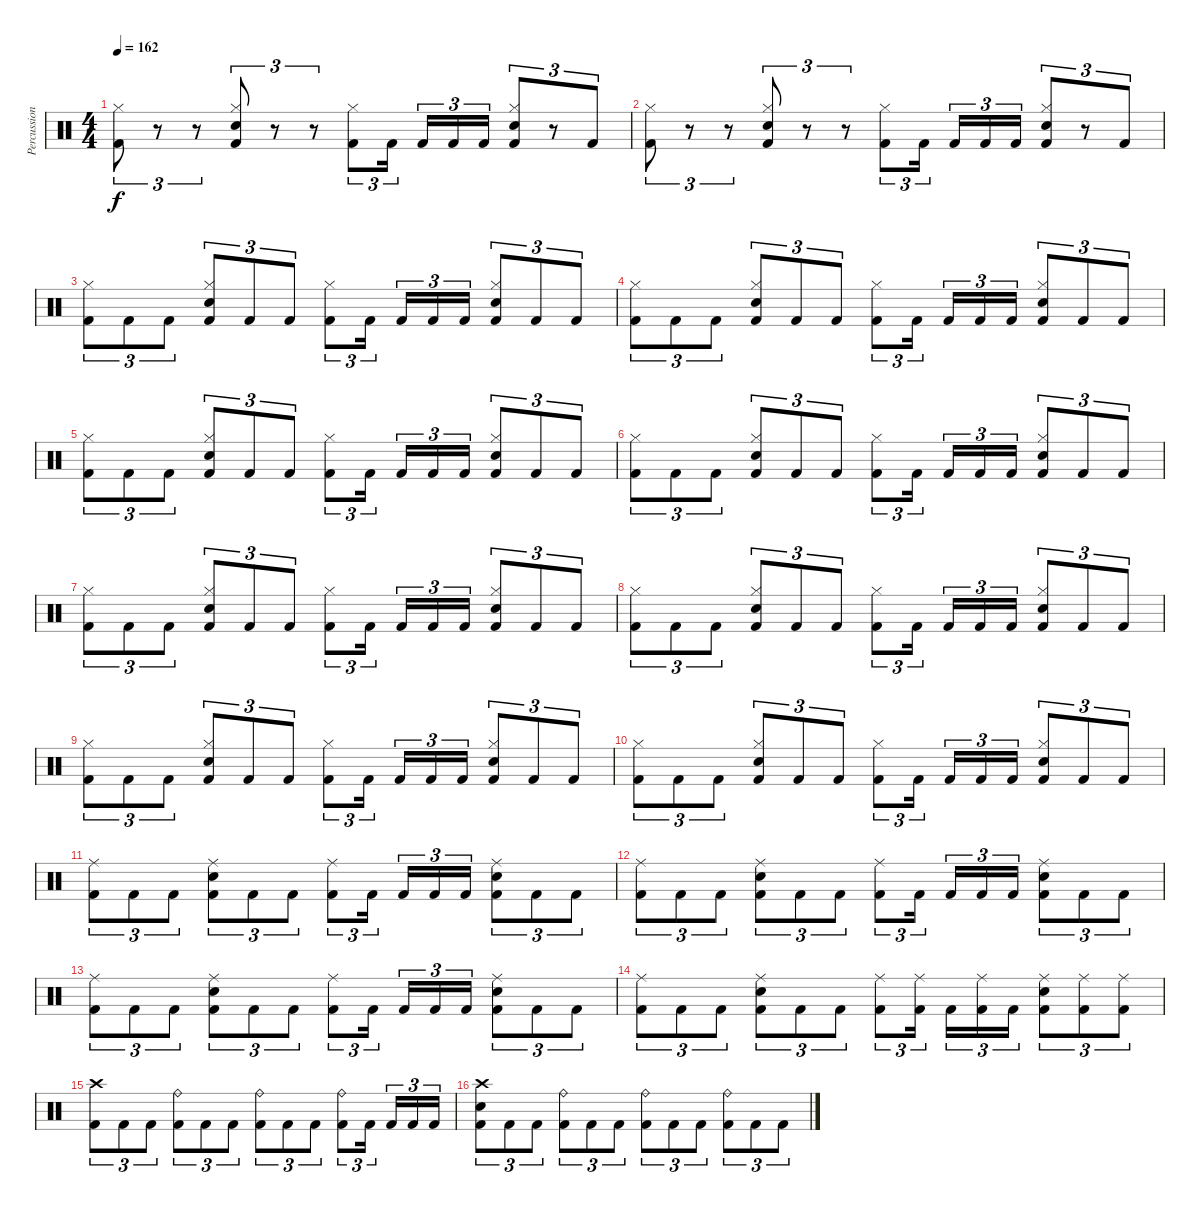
\track ("Percussion" "Percussion") {instrument percussion}
\staff {score}
\articulation defaults
\ts (4 4)
\tempo 162
\clef neutral
\ks c
("Kick (hit) 2" "Hi-Hat (closed)").8{tu (3 2) dy f} r.8{tu (3 2)} r.8{tu (3 2)} ("Kick (hit) 2" "Electric Snare (hit)" "Hi-Hat (closed)").8{tu (3 2)} r.8{tu (3 2)} r.8{tu (3 2)} ("Kick (hit) 2" "Hi-Hat (closed)").8{tu (3 2)} "Kick (hit) 2".16{tu (3 2)} "Kick (hit) 2".16{tu (3 2)} "Kick (hit) 2".16{tu (3 2)} "Kick (hit) 2".16{tu (3 2)} ("Kick (hit) 2" "Electric Snare (hit)" "Hi-Hat (closed)").8{tu (3 2)} r.8{tu (3 2)} "Kick (hit) 2".8{tu (3 2)} |
("Kick (hit) 2" "Hi-Hat (closed)").8{tu (3 2)} r.8{tu (3 2)} r.8{tu (3 2)} ("Kick (hit) 2" "Electric Snare (hit)" "Hi-Hat (closed)").8{tu (3 2)} r.8{tu (3 2)} r.8{tu (3 2)} ("Kick (hit) 2" "Hi-Hat (closed)").8{tu (3 2)} "Kick (hit) 2".16{tu (3 2)} "Kick (hit) 2".16{tu (3 2)} "Kick (hit) 2".16{tu (3 2)} "Kick (hit) 2".16{tu (3 2)} ("Kick (hit) 2" "Electric Snare (hit)" "Hi-Hat (closed)").8{tu (3 2)} r.8{tu (3 2)} "Kick (hit) 2".8{tu (3 2)} |
("Kick (hit) 2" "Hi-Hat (closed)").8{tu (3 2)} "Kick (hit) 2".8{tu (3 2)} "Kick (hit) 2".8{tu (3 2)} ("Kick (hit) 2" "Electric Snare (hit)" "Hi-Hat (closed)").8{tu (3 2)} "Kick (hit) 2".8{tu (3 2)} "Kick (hit) 2".8{tu (3 2)} ("Kick (hit) 2" "Hi-Hat (closed)").8{tu (3 2)} "Kick (hit) 2".16{tu (3 2)} "Kick (hit) 2".16{tu (3 2)} "Kick (hit) 2".16{tu (3 2)} "Kick (hit) 2".16{tu (3 2)} ("Kick (hit) 2" "Electric Snare (hit)" "Hi-Hat (closed)").8{tu (3 2)} "Kick (hit) 2".8{tu (3 2)} "Kick (hit) 2".8{tu (3 2)} |
("Kick (hit) 2" "Hi-Hat (closed)").8{tu (3 2)} "Kick (hit) 2".8{tu (3 2)} "Kick (hit) 2".8{tu (3 2)} ("Kick (hit) 2" "Electric Snare (hit)" "Hi-Hat (closed)").8{tu (3 2)} "Kick (hit) 2".8{tu (3 2)} "Kick (hit) 2".8{tu (3 2)} ("Kick (hit) 2" "Hi-Hat (closed)").8{tu (3 2)} "Kick (hit) 2".16{tu (3 2)} "Kick (hit) 2".16{tu (3 2)} "Kick (hit) 2".16{tu (3 2)} "Kick (hit) 2".16{tu (3 2)} ("Kick (hit) 2" "Electric Snare (hit)" "Hi-Hat (closed)").8{tu (3 2)} "Kick (hit) 2".8{tu (3 2)} "Kick (hit) 2".8{tu (3 2)} |
("Kick (hit) 2" "Hi-Hat (closed)").8{tu (3 2)} "Kick (hit) 2".8{tu (3 2)} "Kick (hit) 2".8{tu (3 2)} ("Kick (hit) 2" "Electric Snare (hit)" "Hi-Hat (closed)").8{tu (3 2)} "Kick (hit) 2".8{tu (3 2)} "Kick (hit) 2".8{tu (3 2)} ("Kick (hit) 2" "Hi-Hat (closed)").8{tu (3 2)} "Kick (hit) 2".16{tu (3 2)} "Kick (hit) 2".16{tu (3 2)} "Kick (hit) 2".16{tu (3 2)} "Kick (hit) 2".16{tu (3 2)} ("Kick (hit) 2" "Electric Snare (hit)" "Hi-Hat (closed)").8{tu (3 2)} "Kick (hit) 2".8{tu (3 2)} "Kick (hit) 2".8{tu (3 2)} |
("Kick (hit) 2" "Hi-Hat (closed)").8{tu (3 2)} "Kick (hit) 2".8{tu (3 2)} "Kick (hit) 2".8{tu (3 2)} ("Kick (hit) 2" "Electric Snare (hit)" "Hi-Hat (closed)").8{tu (3 2)} "Kick (hit) 2".8{tu (3 2)} "Kick (hit) 2".8{tu (3 2)} ("Kick (hit) 2" "Hi-Hat (closed)").8{tu (3 2)} "Kick (hit) 2".16{tu (3 2)} "Kick (hit) 2".16{tu (3 2)} "Kick (hit) 2".16{tu (3 2)} "Kick (hit) 2".16{tu (3 2)} ("Kick (hit) 2" "Electric Snare (hit)" "Hi-Hat (closed)").8{tu (3 2)} "Kick (hit) 2".8{tu (3 2)} "Kick (hit) 2".8{tu (3 2)} |
("Kick (hit) 2" "Hi-Hat (closed)").8{tu (3 2)} "Kick (hit) 2".8{tu (3 2)} "Kick (hit) 2".8{tu (3 2)} ("Kick (hit) 2" "Electric Snare (hit)" "Hi-Hat (closed)").8{tu (3 2)} "Kick (hit) 2".8{tu (3 2)} "Kick (hit) 2".8{tu (3 2)} ("Kick (hit) 2" "Hi-Hat (closed)").8{tu (3 2)} "Kick (hit) 2".16{tu (3 2)} "Kick (hit) 2".16{tu (3 2)} "Kick (hit) 2".16{tu (3 2)} "Kick (hit) 2".16{tu (3 2)} ("Kick (hit) 2" "Electric Snare (hit)" "Hi-Hat (closed)").8{tu (3 2)} "Kick (hit) 2".8{tu (3 2)} "Kick (hit) 2".8{tu (3 2)} |
("Kick (hit) 2" "Hi-Hat (closed)").8{tu (3 2)} "Kick (hit) 2".8{tu (3 2)} "Kick (hit) 2".8{tu (3 2)} ("Kick (hit) 2" "Electric Snare (hit)" "Hi-Hat (closed)").8{tu (3 2)} "Kick (hit) 2".8{tu (3 2)} "Kick (hit) 2".8{tu (3 2)} ("Kick (hit) 2" "Hi-Hat (closed)").8{tu (3 2)} "Kick (hit) 2".16{tu (3 2)} "Kick (hit) 2".16{tu (3 2)} "Kick (hit) 2".16{tu (3 2)} "Kick (hit) 2".16{tu (3 2)} ("Kick (hit) 2" "Electric Snare (hit)" "Hi-Hat (closed)").8{tu (3 2)} "Kick (hit) 2".8{tu (3 2)} "Kick (hit) 2".8{tu (3 2)} |
("Kick (hit) 2" "Hi-Hat (closed)").8{tu (3 2)} "Kick (hit) 2".8{tu (3 2)} "Kick (hit) 2".8{tu (3 2)} ("Kick (hit) 2" "Electric Snare (hit)" "Hi-Hat (closed)").8{tu (3 2)} "Kick (hit) 2".8{tu (3 2)} "Kick (hit) 2".8{tu (3 2)} ("Kick (hit) 2" "Hi-Hat (closed)").8{tu (3 2)} "Kick (hit) 2".16{tu (3 2)} "Kick (hit) 2".16{tu (3 2)} "Kick (hit) 2".16{tu (3 2)} "Kick (hit) 2".16{tu (3 2)} ("Kick (hit) 2" "Electric Snare (hit)" "Hi-Hat (closed)").8{tu (3 2)} "Kick (hit) 2".8{tu (3 2)} "Kick (hit) 2".8{tu (3 2)} |
("Kick (hit) 2" "Hi-Hat (closed)").8{tu (3 2)} "Kick (hit) 2".8{tu (3 2)} "Kick (hit) 2".8{tu (3 2)} ("Kick (hit) 2" "Electric Snare (hit)" "Hi-Hat (closed)").8{tu (3 2)} "Kick (hit) 2".8{tu (3 2)} "Kick (hit) 2".8{tu (3 2)} ("Kick (hit) 2" "Hi-Hat (closed)").8{tu (3 2)} "Kick (hit) 2".16{tu (3 2)} "Kick (hit) 2".16{tu (3 2)} "Kick (hit) 2".16{tu (3 2)} "Kick (hit) 2".16{tu (3 2)} ("Kick (hit) 2" "Electric Snare (hit)" "Hi-Hat (closed)").8{tu (3 2)} "Kick (hit) 2".8{tu (3 2)} "Kick (hit) 2".8{tu (3 2)} |
("Kick (hit) 2" "Ride (middle)").8{tu (3 2)} "Kick (hit) 2".8{tu (3 2)} "Kick (hit) 2".8{tu (3 2)} ("Kick (hit) 2" "Electric Snare (hit)" "Ride (middle)").8{tu (3 2)} "Kick (hit) 2".8{tu (3 2)} "Kick (hit) 2".8{tu (3 2)} ("Kick (hit) 2" "Ride (middle)").8{tu (3 2)} "Kick (hit) 2".16{tu (3 2)} "Kick (hit) 2".16{tu (3 2)} "Kick (hit) 2".16{tu (3 2)} "Kick (hit) 2".16{tu (3 2)} ("Kick (hit) 2" "Electric Snare (hit)" "Ride (middle)").8{tu (3 2)} "Kick (hit) 2".8{tu (3 2)} "Kick (hit) 2".8{tu (3 2)} |
("Kick (hit) 2" "Ride (middle)").8{tu (3 2)} "Kick (hit) 2".8{tu (3 2)} "Kick (hit) 2".8{tu (3 2)} ("Kick (hit) 2" "Electric Snare (hit)" "Ride (middle)").8{tu (3 2)} "Kick (hit) 2".8{tu (3 2)} "Kick (hit) 2".8{tu (3 2)} ("Kick (hit) 2" "Ride (middle)").8{tu (3 2)} "Kick (hit) 2".16{tu (3 2)} "Kick (hit) 2".16{tu (3 2)} "Kick (hit) 2".16{tu (3 2)} "Kick (hit) 2".16{tu (3 2)} ("Kick (hit) 2" "Electric Snare (hit)" "Ride (middle)").8{tu (3 2)} "Kick (hit) 2".8{tu (3 2)} "Kick (hit) 2".8{tu (3 2)} |
("Kick (hit) 2" "Ride (middle)").8{tu (3 2)} "Kick (hit) 2".8{tu (3 2)} "Kick (hit) 2".8{tu (3 2)} ("Kick (hit) 2" "Electric Snare (hit)" "Ride (middle)").8{tu (3 2)} "Kick (hit) 2".8{tu (3 2)} "Kick (hit) 2".8{tu (3 2)} ("Kick (hit) 2" "Ride (middle)").8{tu (3 2)} "Kick (hit) 2".16{tu (3 2)} "Kick (hit) 2".16{tu (3 2)} "Kick (hit) 2".16{tu (3 2)} "Kick (hit) 2".16{tu (3 2)} ("Kick (hit) 2" "Electric Snare (hit)" "Ride (middle)").8{tu (3 2)} "Kick (hit) 2".8{tu (3 2)} "Kick (hit) 2".8{tu (3 2)} |
("Kick (hit) 2" "Ride (middle)").8{tu (3 2)} "Kick (hit) 2".8{tu (3 2)} "Kick (hit) 2".8{tu (3 2)} ("Kick (hit) 2" "Electric Snare (hit)" "Ride (middle)").8{tu (3 2)} "Kick (hit) 2".8{tu (3 2)} "Kick (hit) 2".8{tu (3 2)} ("Kick (hit) 2" "Ride (middle)").8{tu (3 2)} ("Kick (hit) 2" "Ride (middle)").16{tu (3 2)} "Kick (hit) 2".16{tu (3 2)} ("Kick (hit) 2" "Ride (middle)").16{tu (3 2)} "Kick (hit) 2".16{tu (3 2)} ("Kick (hit) 2" "Electric Snare (hit)" "Ride (middle)").8{tu (3 2)} ("Kick (hit) 2" "Ride (middle)").8{tu (3 2)} ("Kick (hit) 2" "Ride (middle)").8{tu (3 2)} |
("Crash high (hit)" "Kick (hit) 2").8{tu (3 2)} "Kick (hit) 2".8{tu (3 2)} "Kick (hit) 2".8{tu (3 2)} ("Ride (bell)" "Kick (hit) 2").8{tu (3 2)} "Kick (hit) 2".8{tu (3 2)} "Kick (hit) 2".8{tu (3 2)} ("Ride (bell)" "Kick (hit) 2").8{tu (3 2)} "Kick (hit) 2".8{tu (3 2)} "Kick (hit) 2".8{tu (3 2)} ("Ride (bell)" "Kick (hit) 2").8{tu (3 2)} "Kick (hit) 2".16{tu (3 2)} "Kick (hit) 2".16{tu (3 2)} "Kick (hit) 2".16{tu (3 2)} "Kick (hit) 2".16{tu (3 2)} |
("Crash high (hit)" "Electric Snare (hit)" "Kick (hit) 2").8{tu (3 2)} "Kick (hit) 2".8{tu (3 2)} "Kick (hit) 2".8{tu (3 2)} ("Ride (bell)" "Kick (hit) 2").8{tu (3 2)} "Kick (hit) 2".8{tu (3 2)} "Kick (hit) 2".8{tu (3 2)} ("Ride (bell)" "Kick (hit) 2").8{tu (3 2)} "Kick (hit) 2".8{tu (3 2)} "Kick (hit) 2".8{tu (3 2)} ("Ride (bell)" "Kick (hit) 2").8{tu (3 2)} "Kick (hit) 2".8{tu (3 2)} "Kick (hit) 2".8{tu (3 2)}
